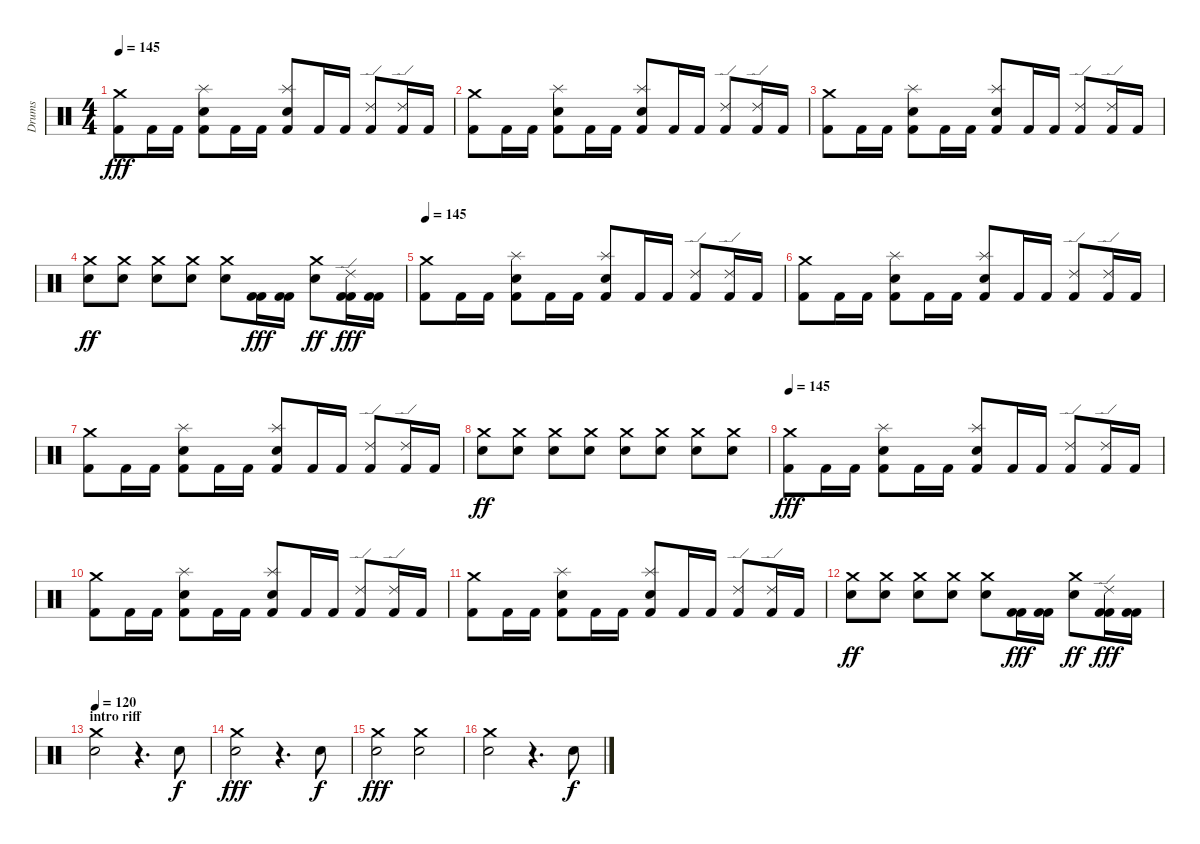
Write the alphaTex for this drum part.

\track ("Drums" "Drums") {instrument percussion}
\staff {score}
\articulation defaults
\ts (4 4)
\tempo 145
\clef neutral
\ks c
("Crash medium (hit)" "Kick (hit) 2").8{dy fff} "Kick (hit) 2".16 "Kick (hit) 2".16 ("Electric Snare (hit)" "Kick (hit) 2" "Splash (hit)").8{balance 0} "Kick (hit) 2".16{balance 8} "Kick (hit) 2".16 ("Snare (hit) 2" "Kick (hit) 2" "Splash (hit)").8{balance 16} "Kick (hit) 2".16{balance 8} "Kick (hit) 2".16 ("Ride (edge) 2" "Kick (hit) 2").8 ("Ride (edge) 2" "Kick (hit) 2").16 "Kick (hit) 2".16 |
("Crash medium (hit)" "Kick (hit) 2").8 "Kick (hit) 2".16 "Kick (hit) 2".16 ("Electric Snare (hit)" "Kick (hit) 2" "Splash (hit)").8{balance 0} "Kick (hit) 2".16{balance 8} "Kick (hit) 2".16 ("Snare (hit) 2" "Kick (hit) 2" "Splash (hit)").8{balance 16} "Kick (hit) 2".16{balance 8} "Kick (hit) 2".16 ("Ride (edge) 2" "Kick (hit) 2").8 ("Ride (edge) 2" "Kick (hit) 2").16 "Kick (hit) 2".16 |
("Crash medium (hit)" "Kick (hit) 2").8 "Kick (hit) 2".16 "Kick (hit) 2".16 ("Electric Snare (hit)" "Kick (hit) 2" "Splash (hit)").8{balance 0} "Kick (hit) 2".16{balance 8} "Kick (hit) 2".16 ("Snare (hit) 2" "Kick (hit) 2" "Splash (hit)").8{balance 16} "Kick (hit) 2".16{balance 8} "Kick (hit) 2".16 ("Ride (edge) 2" "Kick (hit) 2").8 ("Ride (edge) 2" "Kick (hit) 2").16 "Kick (hit) 2".16 |
("Crash medium (hit)" "Electric Snare (hit)").8{dy ff} ("Crash medium (hit)" "Electric Snare (hit)").8 ("Crash medium (hit)" "Electric Snare (hit)").8 ("Crash medium (hit)" "Electric Snare (hit)").8 ("Crash medium (hit)" "Electric Snare (hit)").8 ("Kick (hit) 2" "Kick (hit) 2").16{dy fff} ("Kick (hit) 2" "Kick (hit) 2").16 ("Crash medium (hit)" "Electric Snare (hit)").8{dy ff} ("Ride (edge) 2" "Kick (hit) 2" "Kick (hit) 2").16{dy fff} ("Kick (hit) 2" "Kick (hit) 2").16 |
\tempo 145
("Crash medium (hit)" "Kick (hit) 2").8 "Kick (hit) 2".16 "Kick (hit) 2".16 ("Electric Snare (hit)" "Kick (hit) 2" "Splash (hit)").8{balance 0} "Kick (hit) 2".16{balance 8} "Kick (hit) 2".16 ("Snare (hit) 2" "Kick (hit) 2" "Splash (hit)").8{balance 16} "Kick (hit) 2".16{balance 8} "Kick (hit) 2".16 ("Ride (edge) 2" "Kick (hit) 2").8 ("Ride (edge) 2" "Kick (hit) 2").16 "Kick (hit) 2".16 |
("Crash medium (hit)" "Kick (hit) 2").8 "Kick (hit) 2".16 "Kick (hit) 2".16 ("Electric Snare (hit)" "Kick (hit) 2" "Splash (hit)").8{balance 0} "Kick (hit) 2".16{balance 8} "Kick (hit) 2".16 ("Snare (hit) 2" "Kick (hit) 2" "Splash (hit)").8{balance 16} "Kick (hit) 2".16{balance 8} "Kick (hit) 2".16 ("Ride (edge) 2" "Kick (hit) 2").8 ("Ride (edge) 2" "Kick (hit) 2").16 "Kick (hit) 2".16 |
("Crash medium (hit)" "Kick (hit) 2").8 "Kick (hit) 2".16 "Kick (hit) 2".16 ("Electric Snare (hit)" "Kick (hit) 2" "Splash (hit)").8{balance 0} "Kick (hit) 2".16{balance 8} "Kick (hit) 2".16 ("Snare (hit) 2" "Kick (hit) 2" "Splash (hit)").8{balance 16} "Kick (hit) 2".16{balance 8} "Kick (hit) 2".16 ("Ride (edge) 2" "Kick (hit) 2").8 ("Ride (edge) 2" "Kick (hit) 2").16 "Kick (hit) 2".16 |
("Crash medium (hit)" "Electric Snare (hit)").8{dy ff} ("Crash medium (hit)" "Electric Snare (hit)").8 ("Crash medium (hit)" "Electric Snare (hit)").8 ("Crash medium (hit)" "Electric Snare (hit)").8 ("Crash medium (hit)" "Electric Snare (hit)").8 ("Crash medium (hit)" "Electric Snare (hit)").8 ("Crash medium (hit)" "Electric Snare (hit)").8 ("Crash medium (hit)" "Electric Snare (hit)").8 |
\tempo 145
("Crash medium (hit)" "Kick (hit) 2").8{dy fff} "Kick (hit) 2".16 "Kick (hit) 2".16 ("Electric Snare (hit)" "Kick (hit) 2" "Splash (hit)").8{balance 0} "Kick (hit) 2".16{balance 8} "Kick (hit) 2".16 ("Snare (hit) 2" "Kick (hit) 2" "Splash (hit)").8{balance 16} "Kick (hit) 2".16{balance 8} "Kick (hit) 2".16 ("Ride (edge) 2" "Kick (hit) 2").8 ("Ride (edge) 2" "Kick (hit) 2").16 "Kick (hit) 2".16 |
("Crash medium (hit)" "Kick (hit) 2").8 "Kick (hit) 2".16 "Kick (hit) 2".16 ("Electric Snare (hit)" "Kick (hit) 2" "Splash (hit)").8{balance 0} "Kick (hit) 2".16{balance 8} "Kick (hit) 2".16 ("Snare (hit) 2" "Kick (hit) 2" "Splash (hit)").8{balance 16} "Kick (hit) 2".16{balance 8} "Kick (hit) 2".16 ("Ride (edge) 2" "Kick (hit) 2").8 ("Ride (edge) 2" "Kick (hit) 2").16 "Kick (hit) 2".16 |
("Crash medium (hit)" "Kick (hit) 2").8 "Kick (hit) 2".16 "Kick (hit) 2".16 ("Electric Snare (hit)" "Kick (hit) 2" "Splash (hit)").8{balance 0} "Kick (hit) 2".16{balance 8} "Kick (hit) 2".16 ("Snare (hit) 2" "Kick (hit) 2" "Splash (hit)").8{balance 16} "Kick (hit) 2".16{balance 8} "Kick (hit) 2".16 ("Ride (edge) 2" "Kick (hit) 2").8 ("Ride (edge) 2" "Kick (hit) 2").16 "Kick (hit) 2".16 |
("Crash medium (hit)" "Electric Snare (hit)").8{dy ff} ("Crash medium (hit)" "Electric Snare (hit)").8 ("Crash medium (hit)" "Electric Snare (hit)").8 ("Crash medium (hit)" "Electric Snare (hit)").8 ("Crash medium (hit)" "Electric Snare (hit)").8 ("Kick (hit) 2" "Kick (hit) 2").16{dy fff} ("Kick (hit) 2" "Kick (hit) 2").16 ("Crash medium (hit)" "Electric Snare (hit)").8{dy ff} ("Ride (edge) 2" "Kick (hit) 2" "Kick (hit) 2").16{dy fff} ("Kick (hit) 2" "Kick (hit) 2").16 |
\section ("" "intro riff")
\tempo 120
("Electric Snare (hit)" "Crash medium (hit)").2 r.4{d} "Electric Snare (hit)".8{dy f} |
("Electric Snare (hit)" "Crash medium (hit)").2{dy fff} r.4{d} "Electric Snare (hit)".8{dy f} |
("Electric Snare (hit)" "Crash medium (hit)").2{dy fff} ("Electric Snare (hit)" "Crash medium (hit)").2 |
("Electric Snare (hit)" "Crash medium (hit)").2 r.4{d} "Electric Snare (hit)".8{dy f}
